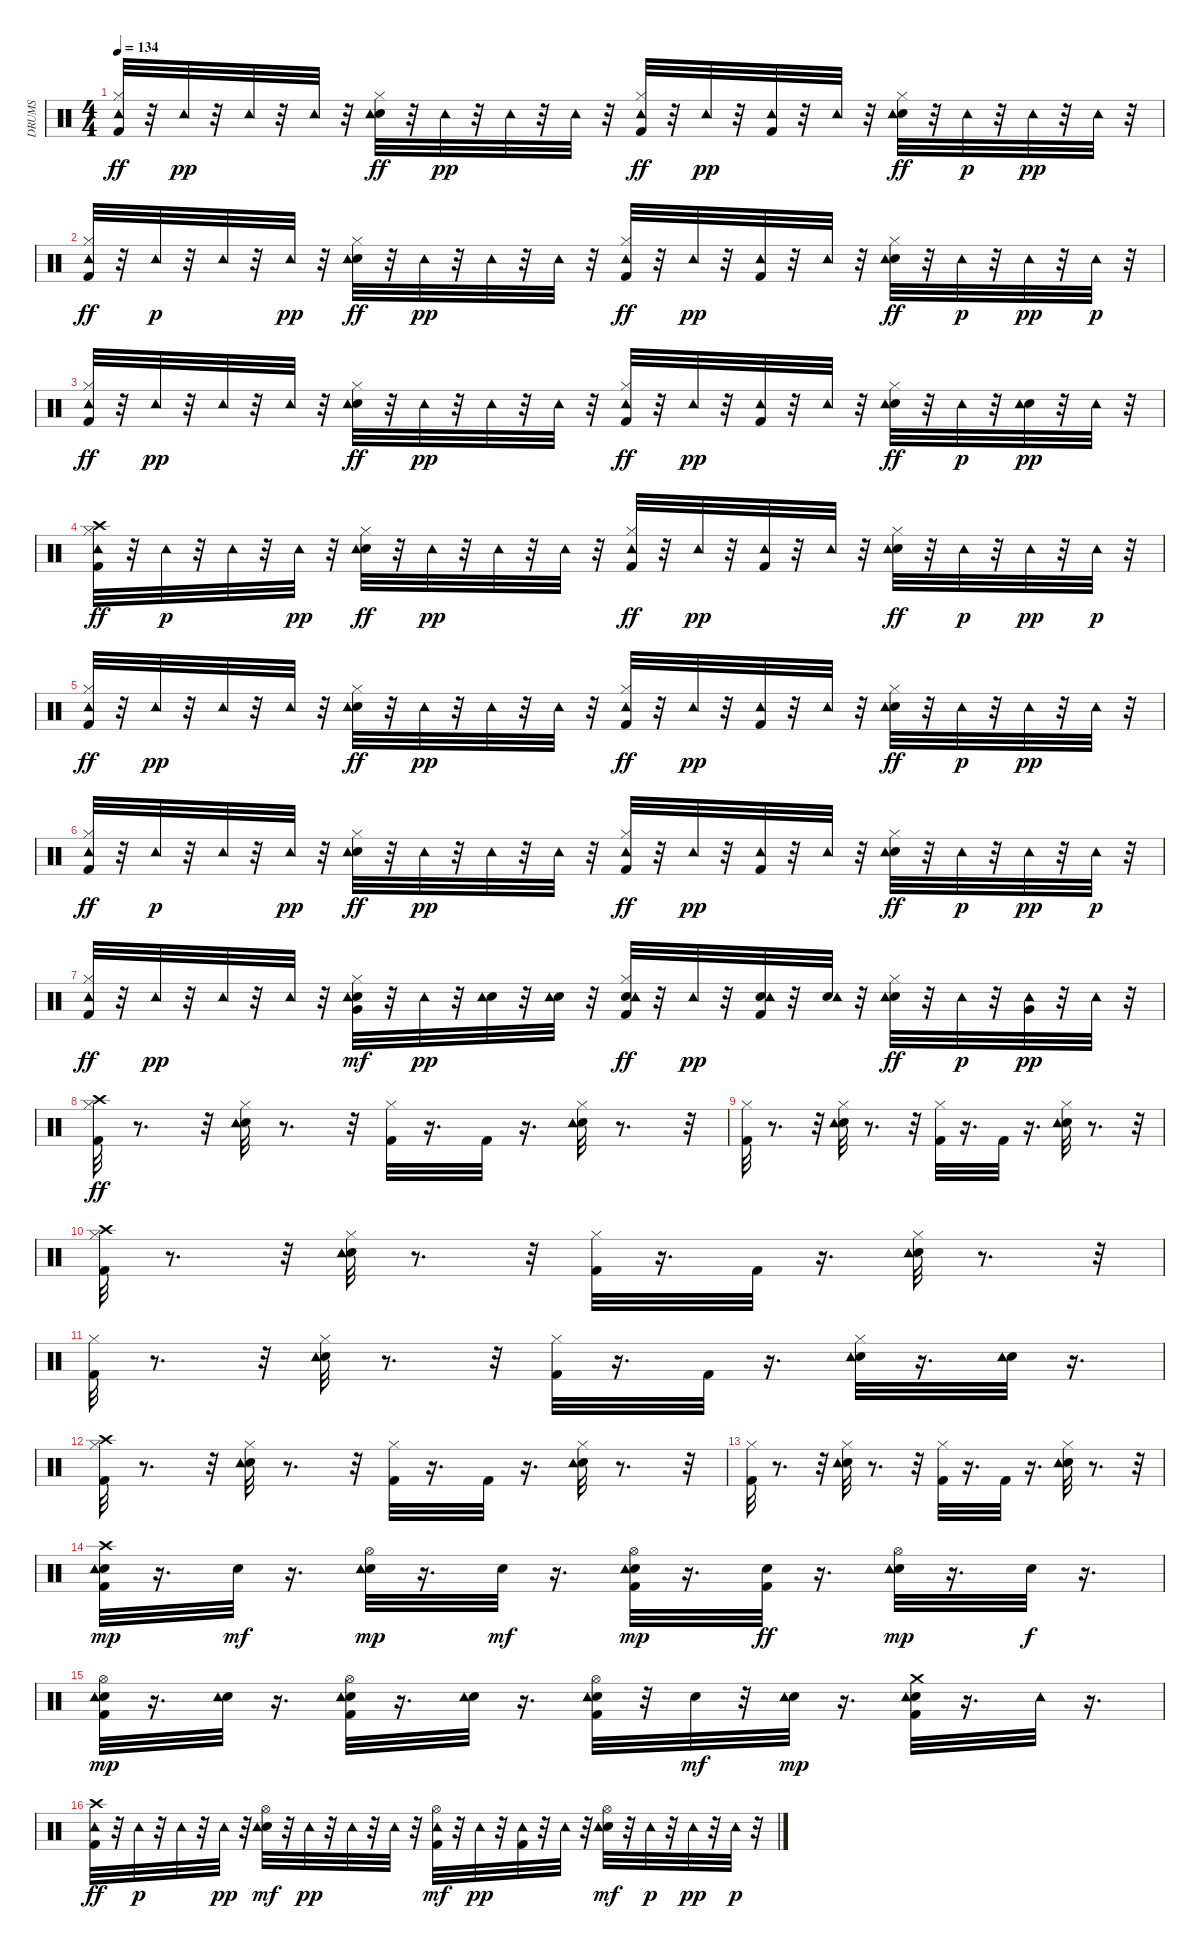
\track ("DRUMS" "DRUMS") {instrument percussion}
\staff {score}
\articulation defaults
\ts (4 4)
\tempo 134
\clef neutral
\ks c
("Kick (hit) 2" "Hi-Hat (closed)" "Tambourine (hit)").32{dy ff} r.32 "Tambourine (hit)".32{dy pp} r.32 "Tambourine (hit)".32 r.32 "Tambourine (hit)".32 r.32 ("Snare (hit) 2" "Hi-Hat (closed)" "Tambourine (hit)").32{dy ff} r.32 "Tambourine (hit)".32{dy pp} r.32 "Tambourine (hit)".32 r.32 "Tambourine (hit)".32 r.32 ("Kick (hit) 2" "Hi-Hat (closed)" "Tambourine (hit)").32{dy ff} r.32 "Tambourine (hit)".32{dy pp} r.32 ("Kick (hit) 2" "Tambourine (hit)").32 r.32 "Tambourine (hit)".32 r.32 ("Snare (hit) 2" "Hi-Hat (closed)" "Tambourine (hit)").32{dy ff} r.32 "Tambourine (hit)".32{dy p} r.32 "Tambourine (hit)".32{dy pp} r.32 "Tambourine (hit)".32 r.32 |
("Kick (hit) 2" "Hi-Hat (closed)" "Tambourine (hit)").32{dy ff} r.32 "Tambourine (hit)".32{dy p} r.32 "Tambourine (hit)".32 r.32 "Tambourine (hit)".32{dy pp} r.32 ("Snare (hit) 2" "Hi-Hat (closed)" "Tambourine (hit)").32{dy ff} r.32 "Tambourine (hit)".32{dy pp} r.32 "Tambourine (hit)".32 r.32 "Tambourine (hit)".32 r.32 ("Kick (hit) 2" "Hi-Hat (closed)" "Tambourine (hit)").32{dy ff} r.32 "Tambourine (hit)".32{dy pp} r.32 ("Kick (hit) 2" "Tambourine (hit)").32 r.32 "Tambourine (hit)".32 r.32 ("Snare (hit) 2" "Hi-Hat (closed)" "Tambourine (hit)").32{dy ff} r.32 "Tambourine (hit)".32{dy p} r.32 "Tambourine (hit)".32{dy pp} r.32 "Tambourine (hit)".32{dy p} r.32 |
("Kick (hit) 2" "Hi-Hat (closed)" "Tambourine (hit)").32{dy ff} r.32 "Tambourine (hit)".32{dy pp} r.32 "Tambourine (hit)".32 r.32 "Tambourine (hit)".32 r.32 ("Snare (hit) 2" "Hi-Hat (closed)" "Tambourine (hit)").32{dy ff} r.32 "Tambourine (hit)".32{dy pp} r.32 "Tambourine (hit)".32 r.32 "Tambourine (hit)".32 r.32 ("Kick (hit) 2" "Hi-Hat (closed)" "Tambourine (hit)").32{dy ff} r.32 "Tambourine (hit)".32{dy pp} r.32 ("Kick (hit) 2" "Tambourine (hit)").32 r.32 "Tambourine (hit)".32 r.32 ("Snare (hit) 2" "Hi-Hat (closed)" "Tambourine (hit)").32{dy ff} r.32 "Tambourine (hit)".32{dy p} r.32 ("Snare (hit) 2" "Tambourine (hit)").32{dy pp} r.32 "Tambourine (hit)".32 r.32 |
("Kick (hit) 2" "Hi-Hat (closed)" "Crash high (hit)" "Tambourine (hit)").32{dy ff} r.32 "Tambourine (hit)".32{dy p} r.32 "Tambourine (hit)".32 r.32 "Tambourine (hit)".32{dy pp} r.32 ("Snare (hit) 2" "Hi-Hat (closed)" "Tambourine (hit)").32{dy ff} r.32 "Tambourine (hit)".32{dy pp} r.32 "Tambourine (hit)".32 r.32 "Tambourine (hit)".32 r.32 ("Kick (hit) 2" "Hi-Hat (closed)" "Tambourine (hit)").32{dy ff} r.32 "Tambourine (hit)".32{dy pp} r.32 ("Kick (hit) 2" "Tambourine (hit)").32 r.32 "Tambourine (hit)".32 r.32 ("Snare (hit) 2" "Hi-Hat (closed)" "Tambourine (hit)").32{dy ff} r.32 "Tambourine (hit)".32{dy p} r.32 "Tambourine (hit)".32{dy pp} r.32 "Tambourine (hit)".32{dy p} r.32 |
("Kick (hit) 2" "Hi-Hat (closed)" "Tambourine (hit)").32{dy ff} r.32 "Tambourine (hit)".32{dy pp} r.32 "Tambourine (hit)".32 r.32 "Tambourine (hit)".32 r.32 ("Snare (hit) 2" "Hi-Hat (closed)" "Tambourine (hit)").32{dy ff} r.32 "Tambourine (hit)".32{dy pp} r.32 "Tambourine (hit)".32 r.32 "Tambourine (hit)".32 r.32 ("Kick (hit) 2" "Hi-Hat (closed)" "Tambourine (hit)").32{dy ff} r.32 "Tambourine (hit)".32{dy pp} r.32 ("Kick (hit) 2" "Tambourine (hit)").32 r.32 "Tambourine (hit)".32 r.32 ("Snare (hit) 2" "Hi-Hat (closed)" "Tambourine (hit)").32{dy ff} r.32 "Tambourine (hit)".32{dy p} r.32 "Tambourine (hit)".32{dy pp} r.32 "Tambourine (hit)".32 r.32 |
("Kick (hit) 2" "Hi-Hat (closed)" "Tambourine (hit)").32{dy ff} r.32 "Tambourine (hit)".32{dy p} r.32 "Tambourine (hit)".32 r.32 "Tambourine (hit)".32{dy pp} r.32 ("Snare (hit) 2" "Hi-Hat (closed)" "Tambourine (hit)").32{dy ff} r.32 "Tambourine (hit)".32{dy pp} r.32 "Tambourine (hit)".32 r.32 "Tambourine (hit)".32 r.32 ("Kick (hit) 2" "Hi-Hat (closed)" "Tambourine (hit)").32{dy ff} r.32 "Tambourine (hit)".32{dy pp} r.32 ("Kick (hit) 2" "Tambourine (hit)").32 r.32 "Tambourine (hit)".32 r.32 ("Snare (hit) 2" "Hi-Hat (closed)" "Tambourine (hit)").32{dy ff} r.32 "Tambourine (hit)".32{dy p} r.32 "Tambourine (hit)".32{dy pp} r.32 "Tambourine (hit)".32{dy p} r.32 |
("Kick (hit) 2" "Hi-Hat (closed)" "Tambourine (hit)").32{dy ff} r.32 "Tambourine (hit)".32{dy pp} r.32 "Tambourine (hit)".32 r.32 "Tambourine (hit)".32 r.32 ("Snare (hit) 2" "Hi-Hat (closed)" "Very Low Tom (hit)" "Tambourine (hit)").32{dy mf} r.32 "Tambourine (hit)".32{dy pp} r.32 ("Snare (hit) 2" "Tambourine (hit)").32 r.32 ("Snare (hit) 2" "Tambourine (hit)").32 r.32 ("Kick (hit) 2" "Snare (hit) 2" "Hi-Hat (closed)" "Tambourine (hit)").32{dy ff} r.32 "Tambourine (hit)".32{dy pp} r.32 ("Kick (hit) 2" "Snare (hit) 2" "Tambourine (hit)").32 r.32 ("Snare (hit) 2" "Tambourine (hit)").32 r.32 ("Snare (hit) 2" "Hi-Hat (closed)" "Tambourine (hit)").32{dy ff} r.32 "Tambourine (hit)".32{dy p} r.32 ("Very Low Tom (hit)" "Tambourine (hit)").32{dy pp} r.32 "Tambourine (hit)".32 r.32 |
("Kick (hit) 2" "Hi-Hat (closed)" "Crash high (hit)").32{dy ff} r.8{d} r.32 ("Snare (hit) 2" "Hi-Hat (closed)" "Tambourine (hit)").32 r.8{d} r.32 ("Kick (hit) 2" "Hi-Hat (closed)").32 r.16{d} "Kick (hit) 2".32 r.16{d} ("Snare (hit) 2" "Hi-Hat (closed)" "Tambourine (hit)").32 r.8{d} r.32 |
("Kick (hit) 2" "Hi-Hat (closed)").32 r.8{d} r.32 ("Snare (hit) 2" "Hi-Hat (closed)" "Tambourine (hit)").32 r.8{d} r.32 ("Kick (hit) 2" "Hi-Hat (closed)").32 r.16{d} "Kick (hit) 2".32 r.16{d} ("Snare (hit) 2" "Hi-Hat (closed)" "Tambourine (hit)").32 r.8{d} r.32 |
("Kick (hit) 2" "Hi-Hat (closed)" "Crash high (hit)").32 r.8{d} r.32 ("Snare (hit) 2" "Hi-Hat (closed)" "Tambourine (hit)").32 r.8{d} r.32 ("Kick (hit) 2" "Hi-Hat (closed)").32 r.16{d} "Kick (hit) 2".32 r.16{d} ("Snare (hit) 2" "Hi-Hat (closed)" "Tambourine (hit)").32 r.8{d} r.32 |
("Kick (hit) 2" "Hi-Hat (closed)").32 r.8{d} r.32 ("Snare (hit) 2" "Hi-Hat (closed)" "Tambourine (hit)").32 r.8{d} r.32 ("Kick (hit) 2" "Hi-Hat (closed)").32 r.16{d} "Kick (hit) 2".32 r.16{d} ("Snare (hit) 2" "Hi-Hat (closed)" "Tambourine (hit)").32 r.16{d} ("Snare (hit) 2" "Tambourine (hit)").32 r.16{d} |
("Kick (hit) 2" "Hi-Hat (closed)" "Crash high (hit)").32 r.8{d} r.32 ("Snare (hit) 2" "Hi-Hat (closed)" "Tambourine (hit)").32 r.8{d} r.32 ("Kick (hit) 2" "Hi-Hat (closed)").32 r.16{d} "Kick (hit) 2".32 r.16{d} ("Snare (hit) 2" "Hi-Hat (closed)" "Tambourine (hit)").32 r.8{d} r.32 |
("Kick (hit) 2" "Hi-Hat (closed)").32 r.8{d} r.32 ("Snare (hit) 2" "Hi-Hat (closed)" "Tambourine (hit)").32 r.8{d} r.32 ("Kick (hit) 2" "Hi-Hat (closed)").32 r.16{d} "Kick (hit) 2".32 r.16{d} ("Snare (hit) 2" "Hi-Hat (closed)" "Tambourine (hit)").32 r.8{d} r.32 |
("Kick (hit) 2" "Snare (hit) 2" "Crash high (hit)" "Tambourine (hit)").32{dy mp} r.16{d} "Snare (hit) 2".32{dy mf} r.16{d} ("Snare (hit) 2" "Hi-Hat (open)" "Tambourine (hit)").32{dy mp} r.16{d} "Snare (hit) 2".32{dy mf} r.16{d} ("Kick (hit) 2" "Snare (hit) 2" "Hi-Hat (open)" "Tambourine (hit)").32{dy mp} r.16{d} ("Kick (hit) 2" "Snare (hit) 2").32{dy ff} r.16{d} ("Snare (hit) 2" "Hi-Hat (open)" "Tambourine (hit)").32{dy mp} r.16{d} "Snare (hit) 2".32{dy f} r.16{d} |
("Kick (hit) 2" "Snare (hit) 2" "Hi-Hat (open)" "Tambourine (hit)").32{dy mp} r.16{d} ("Snare (hit) 2" "Tambourine (hit)").32 r.16{d} ("Kick (hit) 2" "Snare (hit) 2" "Hi-Hat (open)" "Tambourine (hit)").32 r.16{d} ("Snare (hit) 2" "Tambourine (hit)").32 r.16{d} ("Kick (hit) 2" "Snare (hit) 2" "Hi-Hat (open)" "Tambourine (hit)").32 r.32 "Snare (hit) 2".32{dy mf} r.32 ("Snare (hit) 2" "Tambourine (hit)").32{dy mp} r.16{d} ("Kick (hit) 2" "Snare (hit) 2" "Crash medium (hit)" "Tambourine (hit)").32 r.16{d} "Tambourine (hit)".32 r.16{d} |
("Kick (hit) 2" "Crash high (hit)" "Tambourine (hit)").32{dy ff} r.32 "Tambourine (hit)".32{dy p} r.32 "Tambourine (hit)".32 r.32 "Tambourine (hit)".32{dy pp} r.32 ("Snare (hit) 2" "Hi-Hat (open)" "Tambourine (hit)").32{dy mf} r.32 "Tambourine (hit)".32{dy pp} r.32 "Tambourine (hit)".32 r.32 "Tambourine (hit)".32 r.32 ("Kick (hit) 2" "Hi-Hat (open)" "Tambourine (hit)").32{dy mf} r.32 "Tambourine (hit)".32{dy pp} r.32 ("Kick (hit) 2" "Tambourine (hit)").32 r.32 "Tambourine (hit)".32 r.32 ("Snare (hit) 2" "Hi-Hat (open)" "Tambourine (hit)").32{dy mf} r.32 "Tambourine (hit)".32{dy p} r.32 "Tambourine (hit)".32{dy pp} r.32 "Tambourine (hit)".32{dy p} r.32
